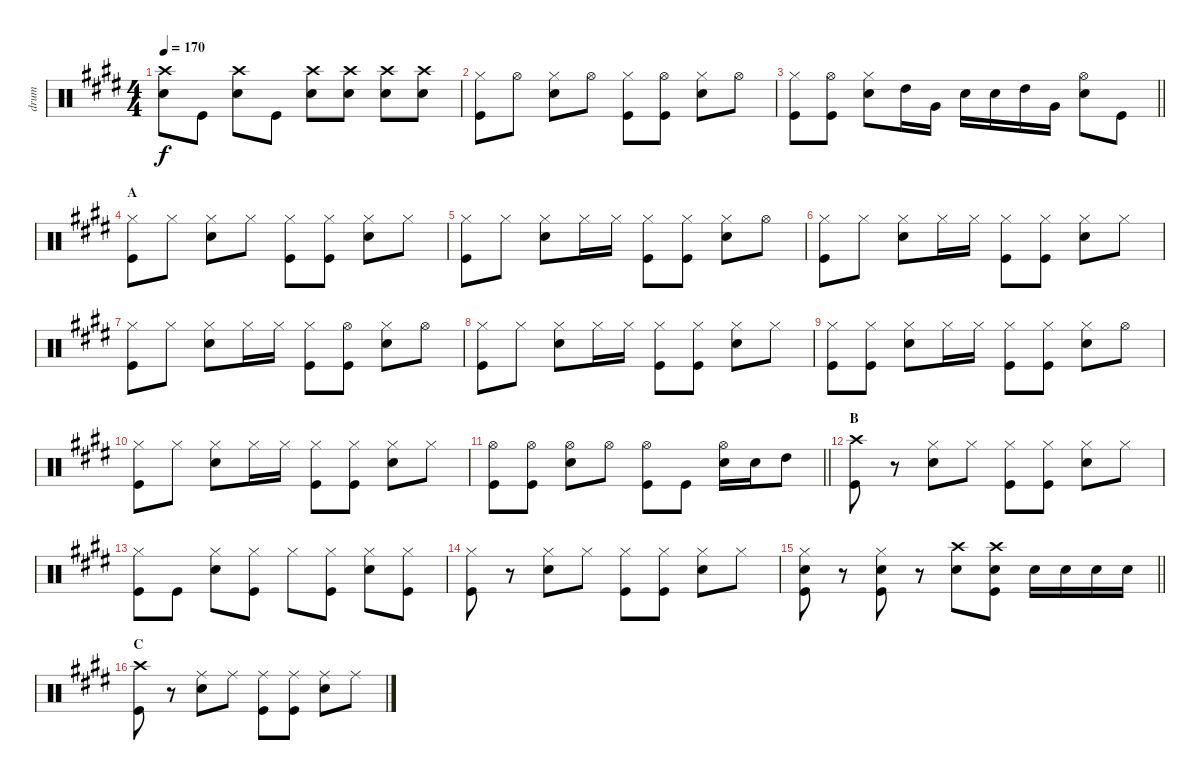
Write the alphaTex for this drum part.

\track ("drum" "drum") {instrument percussion}
\staff {score}
\articulation defaults
\ts (4 4)
\tempo 170
\clef neutral
\ks e
("Crash high (hit)" "Snare (hit) 2").8{dy f} "Kick (hit)".8 ("Crash high (hit)" "Snare (hit) 2").8 "Kick (hit)".8 ("Crash high (hit)" "Snare (hit) 2").8 ("Crash high (hit)" "Snare (hit) 2").8 ("Crash high (hit)" "Snare (hit) 2").8 ("Crash high (hit)" "Snare (hit) 2").8 |
("Hi-Hat (closed)" "Kick (hit)").8 "Hi-Hat (open)".8 ("Hi-Hat (closed)" "Snare (hit) 2").8 "Hi-Hat (open)".8 ("Hi-Hat (closed)" "Kick (hit)").8 ("Hi-Hat (open)" "Kick (hit)").8 ("Hi-Hat (closed)" "Snare (hit) 2").8 "Hi-Hat (open)".8 |
\barLineRight lightlight
("Hi-Hat (closed)" "Kick (hit)").8 ("Hi-Hat (open)" "Kick (hit)").8 ("Hi-Hat (closed)" "Snare (hit) 2").8 "High Tom (hit)".16 "Very Low Tom (hit)".16 "Snare (hit) 2".16 "Snare (hit) 2".16 "High Tom (hit)".16 "Very Low Tom (hit)".16 ("Hi-Hat (open)" "Snare (hit) 2").8 "Kick (hit)".8 |
\section ("" "A")
("Hi-Hat (closed)" "Kick (hit)").8 "Hi-Hat (closed)".8 ("Hi-Hat (closed)" "Snare (hit) 2").8 "Hi-Hat (closed)".8 ("Hi-Hat (closed)" "Kick (hit)").8 ("Hi-Hat (closed)" "Kick (hit)").8 ("Hi-Hat (closed)" "Snare (hit) 2").8 "Hi-Hat (closed)".8 |
("Hi-Hat (closed)" "Kick (hit)").8 "Hi-Hat (closed)".8 ("Hi-Hat (closed)" "Snare (hit) 2").8 "Hi-Hat (closed)".16 "Hi-Hat (closed)".16 ("Hi-Hat (closed)" "Kick (hit)").8 ("Hi-Hat (closed)" "Kick (hit)").8 ("Hi-Hat (closed)" "Snare (hit) 2").8 "Hi-Hat (open)".8 |
("Hi-Hat (closed)" "Kick (hit)").8 "Hi-Hat (closed)".8 ("Hi-Hat (closed)" "Snare (hit) 2").8 "Hi-Hat (closed)".16 "Hi-Hat (closed)".16 ("Hi-Hat (closed)" "Kick (hit)").8 ("Hi-Hat (closed)" "Kick (hit)").8 ("Hi-Hat (closed)" "Snare (hit) 2").8 "Hi-Hat (closed)".8 |
("Hi-Hat (closed)" "Kick (hit)").8 "Hi-Hat (closed)".8 ("Hi-Hat (closed)" "Snare (hit) 2").8 "Hi-Hat (closed)".16 "Hi-Hat (closed)".16 ("Hi-Hat (closed)" "Kick (hit)").8 ("Hi-Hat (open)" "Kick (hit)").8 ("Hi-Hat (closed)" "Snare (hit) 2").8 "Hi-Hat (open)".8 |
("Hi-Hat (closed)" "Kick (hit)").8 "Hi-Hat (closed)".8 ("Hi-Hat (closed)" "Snare (hit) 2").8 "Hi-Hat (closed)".16 "Hi-Hat (closed)".16 ("Hi-Hat (closed)" "Kick (hit)").8 ("Hi-Hat (closed)" "Kick (hit)").8 ("Hi-Hat (closed)" "Snare (hit) 2").8 "Hi-Hat (closed)".8 |
("Hi-Hat (closed)" "Kick (hit)").8 ("Hi-Hat (closed)" "Kick (hit)").8 ("Hi-Hat (closed)" "Snare (hit) 2").8 "Hi-Hat (closed)".16 "Hi-Hat (closed)".16 ("Hi-Hat (closed)" "Kick (hit)").8 ("Hi-Hat (closed)" "Kick (hit)").8 ("Hi-Hat (closed)" "Snare (hit) 2").8 "Hi-Hat (open)".8 |
("Hi-Hat (closed)" "Kick (hit)").8 "Hi-Hat (closed)".8 ("Hi-Hat (closed)" "Snare (hit) 2").8 "Hi-Hat (closed)".16 "Hi-Hat (closed)".16 ("Hi-Hat (closed)" "Kick (hit)").8 ("Hi-Hat (closed)" "Kick (hit)").8 ("Hi-Hat (closed)" "Snare (hit) 2").8 "Hi-Hat (closed)".8 |
\barLineRight lightlight
("Hi-Hat (open)" "Kick (hit)").8 ("Hi-Hat (open)" "Kick (hit)").8 ("Hi-Hat (open)" "Snare (hit) 2").8 "Hi-Hat (open)".8 ("Hi-Hat (open)" "Kick (hit)").8 "Kick (hit)".8 ("Hi-Hat (open)" "Snare (hit) 2").16 "Snare (hit) 2".16 "High Tom (hit)".8 |
\section ("" "B")
("Crash high (hit)" "Kick (hit)").8 r.8 ("Hi-Hat (closed)" "Snare (hit) 2").8 "Hi-Hat (closed)".8 ("Hi-Hat (closed)" "Kick (hit)").8 ("Hi-Hat (closed)" "Kick (hit)").8 ("Hi-Hat (closed)" "Snare (hit) 2").8 "Hi-Hat (closed)".8 |
("Hi-Hat (closed)" "Kick (hit)").8 "Kick (hit)".8 ("Hi-Hat (closed)" "Snare (hit) 2").8 ("Hi-Hat (closed)" "Kick (hit)").8 "Hi-Hat (closed)".8 ("Hi-Hat (closed)" "Kick (hit)").8 ("Hi-Hat (closed)" "Snare (hit) 2").8 ("Hi-Hat (closed)" "Kick (hit)").8 |
("Hi-Hat (closed)" "Kick (hit)").8 r.8 ("Hi-Hat (closed)" "Snare (hit) 2").8 "Hi-Hat (closed)".8 ("Hi-Hat (closed)" "Kick (hit)").8 ("Hi-Hat (closed)" "Kick (hit)").8 ("Hi-Hat (closed)" "Snare (hit) 2").8 "Hi-Hat (closed)".8 |
\barLineRight lightlight
("Hi-Hat (closed)" "Snare (hit) 2" "Kick (hit)").8 r.8 ("Hi-Hat (closed)" "Snare (hit) 2" "Kick (hit)").8 r.8 ("Crash high (hit)" "Snare (hit) 2").8 ("Crash high (hit)" "Snare (hit) 2" "Kick (hit)").8 "Snare (hit) 2".16 "Snare (hit) 2".16 "Snare (hit) 2".16 "Snare (hit) 2".16 |
\section ("" "C")
("Crash high (hit)" "Kick (hit)").8 r.8 ("Ride (middle)" "Snare (hit) 2").8 "Ride (middle)".8 ("Ride (middle)" "Kick (hit)").8 ("Ride (middle)" "Kick (hit)").8 ("Ride (middle)" "Snare (hit) 2").8 "Ride (middle)".8
